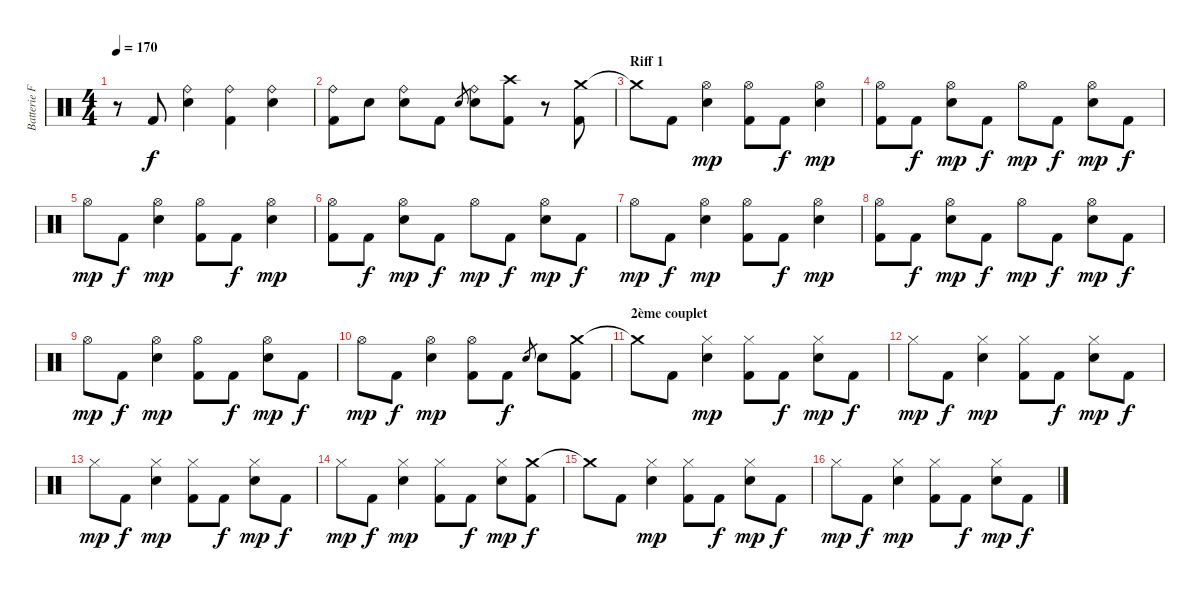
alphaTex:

\track ("Batterie Franck" "Batterie F") {instrument percussion}
\staff {score}
\articulation defaults
\ts (4 4)
\tempo 170
\clef neutral
\ks c
r.8{dy f} "Kick (hit) 2".8 ("Ride (bell)" "Snare (hit) 2").4 ("Ride (bell)" "Kick (hit) 2").4 ("Ride (bell)" "Snare (hit) 2").4 |
("Ride (bell)" "Kick (hit) 2").8 "Snare (hit) 2".8 ("Ride (bell)" "Snare (hit) 2").8 "Kick (hit) 2".8 "Snare (hit) 2".8{gr} ("Ride (bell)" "Snare (hit) 2").8 ("Crash high (hit)" "Kick (hit) 2").8 r.8 ("Crash medium (hit)" "Kick (hit) 2").8 |
\section ("" "Riff 1")
"Crash medium (hit)"{t}.8 "Kick (hit) 2".8 ("Hi-Hat (open)" "Snare (hit) 2").4{dy mp} ("Hi-Hat (open)" "Kick (hit) 2").8 "Kick (hit) 2".8{dy f} ("Hi-Hat (open)" "Snare (hit) 2").4{dy mp} |
("Hi-Hat (open)" "Kick (hit) 2").8 "Kick (hit) 2".8{dy f} ("Hi-Hat (open)" "Snare (hit) 2").8{dy mp} "Kick (hit) 2".8{dy f} "Hi-Hat (open)".8{dy mp} "Kick (hit) 2".8{dy f} ("Hi-Hat (open)" "Snare (hit) 2").8{dy mp} "Kick (hit) 2".8{dy f} |
"Hi-Hat (open)".8{dy mp} "Kick (hit) 2".8{dy f} ("Hi-Hat (open)" "Snare (hit) 2").4{dy mp} ("Hi-Hat (open)" "Kick (hit) 2").8 "Kick (hit) 2".8{dy f} ("Hi-Hat (open)" "Snare (hit) 2").4{dy mp} |
("Hi-Hat (open)" "Kick (hit) 2").8 "Kick (hit) 2".8{dy f} ("Hi-Hat (open)" "Snare (hit) 2").8{dy mp} "Kick (hit) 2".8{dy f} "Hi-Hat (open)".8{dy mp} "Kick (hit) 2".8{dy f} ("Hi-Hat (open)" "Snare (hit) 2").8{dy mp} "Kick (hit) 2".8{dy f} |
"Hi-Hat (open)".8{dy mp} "Kick (hit) 2".8{dy f} ("Hi-Hat (open)" "Snare (hit) 2").4{dy mp} ("Hi-Hat (open)" "Kick (hit) 2").8 "Kick (hit) 2".8{dy f} ("Hi-Hat (open)" "Snare (hit) 2").4{dy mp} |
("Hi-Hat (open)" "Kick (hit) 2").8 "Kick (hit) 2".8{dy f} ("Hi-Hat (open)" "Snare (hit) 2").8{dy mp} "Kick (hit) 2".8{dy f} "Hi-Hat (open)".8{dy mp} "Kick (hit) 2".8{dy f} ("Hi-Hat (open)" "Snare (hit) 2").8{dy mp} "Kick (hit) 2".8{dy f} |
"Hi-Hat (open)".8{dy mp} "Kick (hit) 2".8{dy f} ("Hi-Hat (open)" "Snare (hit) 2").4{dy mp} ("Hi-Hat (open)" "Kick (hit) 2").8 "Kick (hit) 2".8{dy f} ("Hi-Hat (open)" "Snare (hit) 2").8{dy mp} "Kick (hit) 2".8{dy f} |
"Hi-Hat (open)".8{dy mp} "Kick (hit) 2".8{dy f} ("Hi-Hat (open)" "Snare (hit) 2").4{dy mp} ("Hi-Hat (open)" "Kick (hit) 2").8 "Kick (hit) 2".8{dy f} "Snare (hit) 2".8{gr} "Snare (hit) 2".8 ("Crash medium (hit)" "Kick (hit) 2").8 |
\section ("" "2ème couplet")
"Crash medium (hit)"{t}.8 "Kick (hit) 2".8 ("Hi-Hat (closed)" "Snare (hit) 2").4{dy mp} ("Hi-Hat (closed)" "Kick (hit) 2").8 "Kick (hit) 2".8{dy f} ("Hi-Hat (closed)" "Snare (hit) 2").8{dy mp} "Kick (hit) 2".8{dy f} |
"Hi-Hat (closed)".8{dy mp} "Kick (hit) 2".8{dy f} ("Hi-Hat (closed)" "Snare (hit) 2").4{dy mp} ("Hi-Hat (closed)" "Kick (hit) 2").8 "Kick (hit) 2".8{dy f} ("Hi-Hat (closed)" "Snare (hit) 2").8{dy mp} "Kick (hit) 2".8{dy f} |
"Hi-Hat (closed)".8{dy mp} "Kick (hit) 2".8{dy f} ("Hi-Hat (closed)" "Snare (hit) 2").4{dy mp} ("Hi-Hat (closed)" "Kick (hit) 2").8 "Kick (hit) 2".8{dy f} ("Hi-Hat (closed)" "Snare (hit) 2").8{dy mp} "Kick (hit) 2".8{dy f} |
"Hi-Hat (closed)".8{dy mp} "Kick (hit) 2".8{dy f} ("Hi-Hat (closed)" "Snare (hit) 2").4{dy mp} ("Hi-Hat (closed)" "Kick (hit) 2").8 "Kick (hit) 2".8{dy f} ("Hi-Hat (closed)" "Snare (hit) 2").8{dy mp} ("Crash medium (hit)" "Kick (hit) 2").8{dy f} |
"Crash medium (hit)"{t}.8 "Kick (hit) 2".8 ("Hi-Hat (closed)" "Snare (hit) 2").4{dy mp} ("Hi-Hat (closed)" "Kick (hit) 2").8 "Kick (hit) 2".8{dy f} ("Hi-Hat (closed)" "Snare (hit) 2").8{dy mp} "Kick (hit) 2".8{dy f} |
"Hi-Hat (closed)".8{dy mp} "Kick (hit) 2".8{dy f} ("Hi-Hat (closed)" "Snare (hit) 2").4{dy mp} ("Hi-Hat (closed)" "Kick (hit) 2").8 "Kick (hit) 2".8{dy f} ("Hi-Hat (closed)" "Snare (hit) 2").8{dy mp} "Kick (hit) 2".8{dy f}
